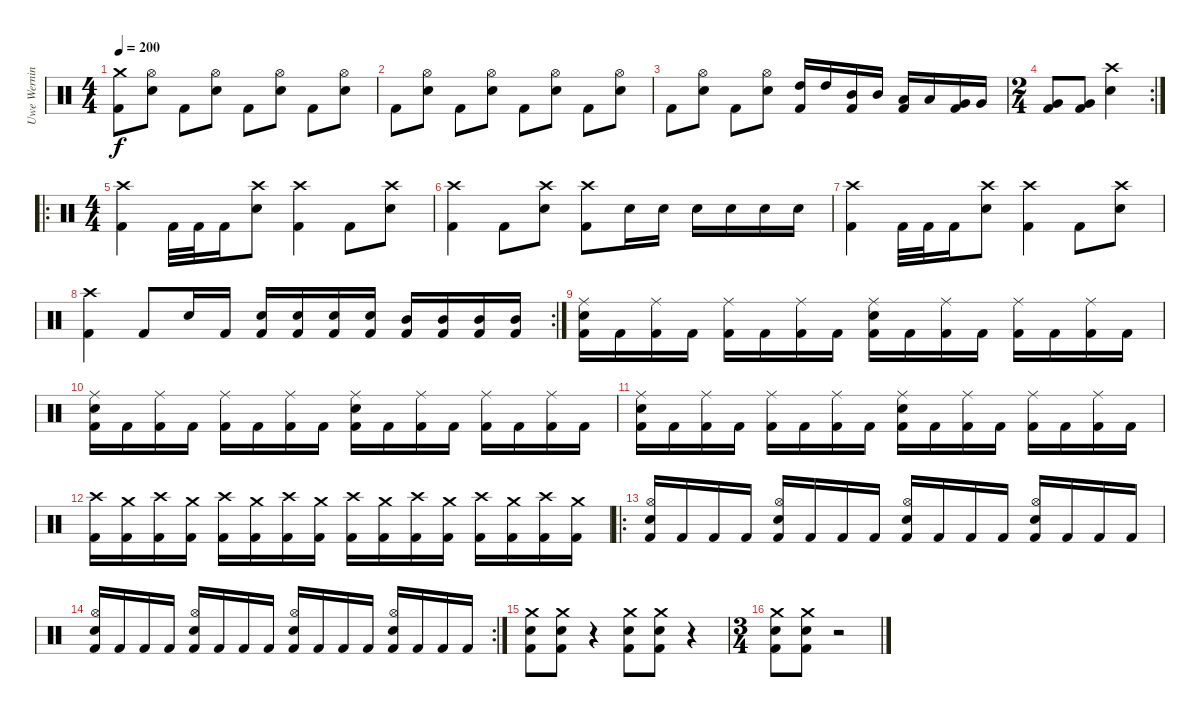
\track ("Uwe Werning" "Uwe Wernin") {instrument percussion}
\staff {score}
\articulation defaults
\ts (4 4)
\tempo 200
\clef neutral
\ks c
("Crash medium (hit)" "Kick (hit) 2").8{dy f} ("Hi-Hat (open)" "Electric Snare (hit)").8 "Kick (hit) 2".8 ("Hi-Hat (open)" "Electric Snare (hit)").8 "Kick (hit) 2".8 ("Hi-Hat (open)" "Electric Snare (hit)").8 "Kick (hit) 2".8 ("Hi-Hat (open)" "Electric Snare (hit)").8 |
"Kick (hit) 2".8 ("Hi-Hat (open)" "Electric Snare (hit)").8 "Kick (hit) 2".8 ("Hi-Hat (open)" "Electric Snare (hit)").8 "Kick (hit) 2".8 ("Hi-Hat (open)" "Electric Snare (hit)").8 "Kick (hit) 2".8 ("Hi-Hat (open)" "Electric Snare (hit)").8 |
"Kick (hit) 2".8 ("Hi-Hat (open)" "Electric Snare (hit)").8 "Kick (hit) 2".8 ("Hi-Hat (open)" "Electric Snare (hit)").8 ("High Tom (hit)" "Kick (hit) 2").16 "High Tom (hit)".16 ("Mid Tom (hit)" "Kick (hit) 2").16 "Mid Tom (hit)".16 ("Low Tom (hit)" "Kick (hit) 2").16 "Low Tom (hit)".16 ("Very Low Tom (hit)" "Kick (hit) 2").16 "Very Low Tom (hit)".16 |
\rc 2
\ts (2 4)
("Very Low Tom (hit)" "Kick (hit) 2").8 ("Very Low Tom (hit)" "Kick (hit) 2").8 ("Crash high (hit)" "Electric Snare (hit)").4 |
\ro
\ts (4 4)
("Crash high (hit)" "Kick (hit) 2").4 "Kick (hit) 2".32 "Kick (hit) 2".32 "Kick (hit) 2".16 ("Crash high (hit)" "Electric Snare (hit)").8 ("Crash high (hit)" "Kick (hit) 2").4 "Kick (hit) 2".8 ("Crash high (hit)" "Electric Snare (hit)").8 |
("Crash high (hit)" "Kick (hit) 2").4 "Kick (hit) 2".8 ("Crash high (hit)" "Electric Snare (hit)").8 ("Crash high (hit)" "Kick (hit) 2").8 "Electric Snare (hit)".16 "Electric Snare (hit)".16 "Electric Snare (hit)".16 "Electric Snare (hit)".16 "Electric Snare (hit)".16 "Electric Snare (hit)".16 |
("Crash high (hit)" "Kick (hit) 2").4 "Kick (hit) 2".32 "Kick (hit) 2".32 "Kick (hit) 2".16 ("Crash high (hit)" "Electric Snare (hit)").8 ("Crash high (hit)" "Kick (hit) 2").4 "Kick (hit) 2".8 ("Crash high (hit)" "Electric Snare (hit)").8 |
\rc 2
("Crash high (hit)" "Kick (hit) 2").4 "Kick (hit) 2".8 "Electric Snare (hit)".16 "Kick (hit) 2".16 ("Electric Snare (hit)" "Kick (hit) 2").16 ("Electric Snare (hit)" "Kick (hit) 2").16 ("Electric Snare (hit)" "Kick (hit) 2").16 ("Electric Snare (hit)" "Kick (hit) 2").16 ("Mid Tom (hit)" "Kick (hit) 2").16 ("Mid Tom (hit)" "Kick (hit) 2").16 ("Mid Tom (hit)" "Kick (hit) 2").16 ("Mid Tom (hit)" "Kick (hit) 2").16 |
("Ride (middle)" "Electric Snare (hit)" "Kick (hit) 2").16 "Kick (hit) 2".16 ("Ride (middle)" "Kick (hit) 2").16 "Kick (hit) 2".16 ("Ride (middle)" "Kick (hit) 2").16 "Kick (hit) 2".16 ("Ride (middle)" "Kick (hit) 2").16 "Kick (hit) 2".16 ("Ride (middle)" "Electric Snare (hit)" "Kick (hit) 2").16 "Kick (hit) 2".16 ("Ride (middle)" "Kick (hit) 2").16 "Kick (hit) 2".16 ("Ride (middle)" "Kick (hit) 2").16 "Kick (hit) 2".16 ("Ride (middle)" "Kick (hit) 2").16 "Kick (hit) 2".16 |
("Ride (middle)" "Electric Snare (hit)" "Kick (hit) 2").16 "Kick (hit) 2".16 ("Ride (middle)" "Kick (hit) 2").16 "Kick (hit) 2".16 ("Ride (middle)" "Kick (hit) 2").16 "Kick (hit) 2".16 ("Ride (middle)" "Kick (hit) 2").16 "Kick (hit) 2".16 ("Ride (middle)" "Electric Snare (hit)" "Kick (hit) 2").16 "Kick (hit) 2".16 ("Ride (middle)" "Kick (hit) 2").16 "Kick (hit) 2".16 ("Ride (middle)" "Kick (hit) 2").16 "Kick (hit) 2".16 ("Ride (middle)" "Kick (hit) 2").16 "Kick (hit) 2".16 |
("Ride (middle)" "Electric Snare (hit)" "Kick (hit) 2").16 "Kick (hit) 2".16 ("Ride (middle)" "Kick (hit) 2").16 "Kick (hit) 2".16 ("Ride (middle)" "Kick (hit) 2").16 "Kick (hit) 2".16 ("Ride (middle)" "Kick (hit) 2").16 "Kick (hit) 2".16 ("Ride (middle)" "Electric Snare (hit)" "Kick (hit) 2").16 "Kick (hit) 2".16 ("Ride (middle)" "Kick (hit) 2").16 "Kick (hit) 2".16 ("Ride (middle)" "Kick (hit) 2").16 "Kick (hit) 2".16 ("Ride (middle)" "Kick (hit) 2").16 "Kick (hit) 2".16 |
("Crash high (hit)" "Kick (hit) 2").16 ("Crash medium (hit)" "Kick (hit) 2").16 ("Crash high (hit)" "Kick (hit) 2").16 ("Crash medium (hit)" "Kick (hit) 2").16 ("Crash high (hit)" "Kick (hit) 2").16 ("Crash medium (hit)" "Kick (hit) 2").16 ("Crash high (hit)" "Kick (hit) 2").16 ("Crash medium (hit)" "Kick (hit) 2").16 ("Crash high (hit)" "Kick (hit) 2").16 ("Crash medium (hit)" "Kick (hit) 2").16 ("Crash high (hit)" "Kick (hit) 2").16 ("Crash medium (hit)" "Kick (hit) 2").16 ("Crash high (hit)" "Kick (hit) 2").16 ("Crash medium (hit)" "Kick (hit) 2").16 ("Crash high (hit)" "Kick (hit) 2").16 ("Crash medium (hit)" "Kick (hit) 2").16 |
\ro
("Hi-Hat (open)" "Electric Snare (hit)" "Kick (hit) 2").16 "Kick (hit) 2".16 "Kick (hit) 2".16 "Kick (hit) 2".16 ("Hi-Hat (open)" "Electric Snare (hit)" "Kick (hit) 2").16 "Kick (hit) 2".16 "Kick (hit) 2".16 "Kick (hit) 2".16 ("Hi-Hat (open)" "Electric Snare (hit)" "Kick (hit) 2").16 "Kick (hit) 2".16 "Kick (hit) 2".16 "Kick (hit) 2".16 ("Hi-Hat (open)" "Electric Snare (hit)" "Kick (hit) 2").16 "Kick (hit) 2".16 "Kick (hit) 2".16 "Kick (hit) 2".16 |
\rc 2
("Hi-Hat (open)" "Electric Snare (hit)" "Kick (hit) 2").16 "Kick (hit) 2".16 "Kick (hit) 2".16 "Kick (hit) 2".16 ("Hi-Hat (open)" "Electric Snare (hit)" "Kick (hit) 2").16 "Kick (hit) 2".16 "Kick (hit) 2".16 "Kick (hit) 2".16 ("Hi-Hat (open)" "Electric Snare (hit)" "Kick (hit) 2").16 "Kick (hit) 2".16 "Kick (hit) 2".16 "Kick (hit) 2".16 ("Hi-Hat (open)" "Electric Snare (hit)" "Kick (hit) 2").16 "Kick (hit) 2".16 "Kick (hit) 2".16 "Kick (hit) 2".16 |
("Crash medium (hit)" "Electric Snare (hit)" "Kick (hit) 2").8 ("Crash medium (hit)" "Electric Snare (hit)" "Kick (hit) 2").8 r.4 ("Crash medium (hit)" "Electric Snare (hit)" "Kick (hit) 2").8 ("Crash medium (hit)" "Electric Snare (hit)" "Kick (hit) 2").8 r.4 |
\ts (3 4)
("Crash medium (hit)" "Electric Snare (hit)" "Kick (hit) 2").8 ("Crash medium (hit)" "Electric Snare (hit)" "Kick (hit) 2").8 r.2
